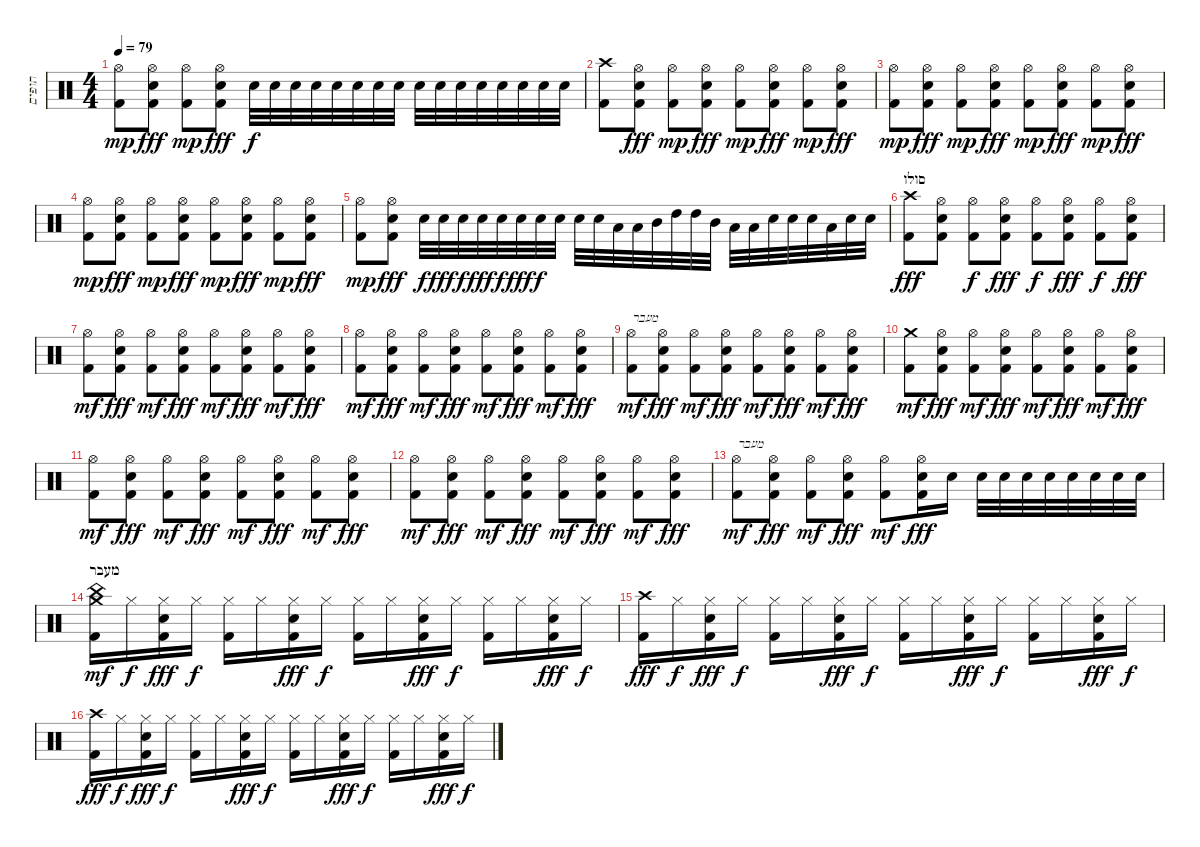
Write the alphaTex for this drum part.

\track ("תופים" "תופים") {instrument percussion}
\staff {score}
\articulation defaults
\ts (4 4)
\tempo 79
\clef neutral
\ks c
("Hi-Hat (open)" "Kick (hit) 2").8{dy mp} ("Hi-Hat (open)" "Snare (hit) 2" "Kick (hit) 2").8{dy fff} ("Hi-Hat (open)" "Kick (hit) 2").8{dy mp} ("Hi-Hat (open)" "Snare (hit) 2" "Kick (hit) 2").8{dy fff} "Snare (hit) 2".32{dy f} "Snare (hit) 2".32 "Snare (hit) 2".32 "Snare (hit) 2".32 "Snare (hit) 2".32 "Snare (hit) 2".32 "Snare (hit) 2".32 "Snare (hit) 2".32 "Snare (hit) 2".32 "Snare (hit) 2".32 "Snare (hit) 2".32 "Snare (hit) 2".32 "Snare (hit) 2".32 "Snare (hit) 2".32 "Snare (hit) 2".32 "Snare (hit) 2".32 |
("Crash high (hit)" "Kick (hit) 2").8 ("Hi-Hat (open)" "Snare (hit) 2" "Kick (hit) 2").8{dy fff} ("Hi-Hat (open)" "Kick (hit) 2").8{dy mp} ("Hi-Hat (open)" "Snare (hit) 2" "Kick (hit) 2").8{dy fff} ("Hi-Hat (open)" "Kick (hit) 2").8{dy mp} ("Hi-Hat (open)" "Snare (hit) 2" "Kick (hit) 2").8{dy fff} ("Hi-Hat (open)" "Kick (hit) 2").8{dy mp} ("Hi-Hat (open)" "Snare (hit) 2" "Kick (hit) 2").8{dy fff} |
("Hi-Hat (open)" "Kick (hit) 2").8{dy mp} ("Hi-Hat (open)" "Snare (hit) 2" "Kick (hit) 2").8{dy fff} ("Hi-Hat (open)" "Kick (hit) 2").8{dy mp} ("Hi-Hat (open)" "Snare (hit) 2" "Kick (hit) 2").8{dy fff} ("Hi-Hat (open)" "Kick (hit) 2").8{dy mp} ("Hi-Hat (open)" "Snare (hit) 2" "Kick (hit) 2").8{dy fff} ("Hi-Hat (open)" "Kick (hit) 2").8{dy mp} ("Hi-Hat (open)" "Snare (hit) 2" "Kick (hit) 2").8{dy fff} |
("Hi-Hat (open)" "Kick (hit) 2").8{dy mp} ("Hi-Hat (open)" "Snare (hit) 2" "Kick (hit) 2").8{dy fff} ("Hi-Hat (open)" "Kick (hit) 2").8{dy mp} ("Hi-Hat (open)" "Snare (hit) 2" "Kick (hit) 2").8{dy fff} ("Hi-Hat (open)" "Kick (hit) 2").8{dy mp} ("Hi-Hat (open)" "Snare (hit) 2" "Kick (hit) 2").8{dy fff} ("Hi-Hat (open)" "Kick (hit) 2").8{dy mp} ("Hi-Hat (open)" "Snare (hit) 2" "Kick (hit) 2").8{dy fff} |
("Hi-Hat (open)" "Kick (hit) 2").8{dy mp} ("Hi-Hat (open)" "Snare (hit) 2" "Kick (hit) 2").8{dy fff} "Snare (hit) 2".32{dy f} "Snare (hit) 2".32{dy fff} "Snare (hit) 2".32{dy f} "Snare (hit) 2".32{dy fff} "Snare (hit) 2".32{dy f} "Snare (hit) 2".32{dy fff} "Snare (hit) 2".32{dy f} "Snare (hit) 2".32 "Snare (hit) 2".32 "Snare (hit) 2".32 "Low Tom (hit)".32 "Low Tom (hit)".32 "Mid Tom (hit)".32 "High Tom (hit)".32 "High Tom (hit)".32 "Mid Tom (hit)".32 "Low Tom (hit)".32 "Low Tom (hit)".32 "Snare (hit) 2".32 "Snare (hit) 2".32 "Snare (hit) 2".32 "Low Tom (hit)".32 "Snare (hit) 2".32 "Snare (hit) 2".32 |
\section ("" "סולו")
("Crash high (hit)" "Kick (hit) 2").8{dy fff} ("Hi-Hat (open)" "Snare (hit) 2" "Kick (hit) 2").8 ("Hi-Hat (open)" "Kick (hit) 2").8{dy f} ("Hi-Hat (open)" "Snare (hit) 2" "Kick (hit) 2").8{dy fff} ("Hi-Hat (open)" "Kick (hit) 2").8{dy f} ("Hi-Hat (open)" "Snare (hit) 2" "Kick (hit) 2").8{dy fff} ("Hi-Hat (open)" "Kick (hit) 2").8{dy f} ("Hi-Hat (open)" "Snare (hit) 2" "Kick (hit) 2").8{dy fff} |
("Hi-Hat (open)" "Kick (hit) 2").8{dy mf} ("Hi-Hat (open)" "Snare (hit) 2" "Kick (hit) 2").8{dy fff} ("Hi-Hat (open)" "Kick (hit) 2").8{dy mf} ("Hi-Hat (open)" "Snare (hit) 2" "Kick (hit) 2").8{dy fff} ("Hi-Hat (open)" "Kick (hit) 2").8{dy mf} ("Hi-Hat (open)" "Snare (hit) 2" "Kick (hit) 2").8{dy fff} ("Hi-Hat (open)" "Kick (hit) 2").8{dy mf} ("Hi-Hat (open)" "Snare (hit) 2" "Kick (hit) 2").8{dy fff} |
("Hi-Hat (open)" "Kick (hit) 2").8{dy mf} ("Hi-Hat (open)" "Snare (hit) 2" "Kick (hit) 2").8{dy fff} ("Hi-Hat (open)" "Kick (hit) 2").8{dy mf} ("Hi-Hat (open)" "Snare (hit) 2" "Kick (hit) 2").8{dy fff} ("Hi-Hat (open)" "Kick (hit) 2").8{dy mf} ("Hi-Hat (open)" "Snare (hit) 2" "Kick (hit) 2").8{dy fff} ("Hi-Hat (open)" "Kick (hit) 2").8{dy mf} ("Hi-Hat (open)" "Snare (hit) 2" "Kick (hit) 2").8{dy fff} |
("Hi-Hat (open)" "Kick (hit) 2").8{txt "מעבר" dy mf} ("Hi-Hat (open)" "Snare (hit) 2" "Kick (hit) 2").8{dy fff} ("Hi-Hat (open)" "Kick (hit) 2").8{dy mf} ("Hi-Hat (open)" "Snare (hit) 2" "Kick (hit) 2").8{dy fff} ("Hi-Hat (open)" "Kick (hit) 2").8{dy mf} ("Hi-Hat (open)" "Snare (hit) 2" "Kick (hit) 2").8{dy fff} ("Hi-Hat (open)" "Kick (hit) 2").8{dy mf} ("Hi-Hat (open)" "Snare (hit) 2" "Kick (hit) 2").8{dy fff} |
("Crash medium (hit)" "Kick (hit) 2").8{dy mf} ("Hi-Hat (open)" "Snare (hit) 2" "Kick (hit) 2").8{dy fff} ("Hi-Hat (open)" "Kick (hit) 2").8{dy mf} ("Hi-Hat (open)" "Snare (hit) 2" "Kick (hit) 2").8{dy fff} ("Hi-Hat (open)" "Kick (hit) 2").8{dy mf} ("Hi-Hat (open)" "Snare (hit) 2" "Kick (hit) 2").8{dy fff} ("Hi-Hat (open)" "Kick (hit) 2").8{dy mf} ("Hi-Hat (open)" "Snare (hit) 2" "Kick (hit) 2").8{dy fff} |
("Hi-Hat (open)" "Kick (hit) 2").8{dy mf} ("Hi-Hat (open)" "Snare (hit) 2" "Kick (hit) 2").8{dy fff} ("Hi-Hat (open)" "Kick (hit) 2").8{dy mf} ("Hi-Hat (open)" "Snare (hit) 2" "Kick (hit) 2").8{dy fff} ("Hi-Hat (open)" "Kick (hit) 2").8{dy mf} ("Hi-Hat (open)" "Snare (hit) 2" "Kick (hit) 2").8{dy fff} ("Hi-Hat (open)" "Kick (hit) 2").8{dy mf} ("Hi-Hat (open)" "Snare (hit) 2" "Kick (hit) 2").8{dy fff} |
("Hi-Hat (open)" "Kick (hit) 2").8{dy mf} ("Hi-Hat (open)" "Snare (hit) 2" "Kick (hit) 2").8{dy fff} ("Hi-Hat (open)" "Kick (hit) 2").8{dy mf} ("Hi-Hat (open)" "Snare (hit) 2" "Kick (hit) 2").8{dy fff} ("Hi-Hat (open)" "Kick (hit) 2").8{dy mf} ("Hi-Hat (open)" "Snare (hit) 2" "Kick (hit) 2").8{dy fff} ("Hi-Hat (open)" "Kick (hit) 2").8{dy mf} ("Hi-Hat (open)" "Snare (hit) 2" "Kick (hit) 2").8{dy fff} |
("Hi-Hat (open)" "Kick (hit) 2").8{txt "מעבר" dy mf} ("Hi-Hat (open)" "Snare (hit) 2" "Kick (hit) 2").8{dy fff} ("Hi-Hat (open)" "Kick (hit) 2").8{dy mf} ("Hi-Hat (open)" "Snare (hit) 2" "Kick (hit) 2").8{dy fff} ("Hi-Hat (open)" "Kick (hit) 2").8{dy mf} ("Hi-Hat (open)" "Snare (hit) 2" "Kick (hit) 2").16{dy fff} "Snare (hit) 2".16 "Snare (hit) 2".32 "Snare (hit) 2".32 "Snare (hit) 2".32 "Snare (hit) 2".32 "Snare (hit) 2".32 "Snare (hit) 2".32 "Snare (hit) 2".32 "Snare (hit) 2".32 |
\section ("" "מעבר")
("Crash medium (hit)" "China (hit)" "Kick (hit) 2").16{dy mf} "Hi-Hat (closed)".16{dy f} ("Hi-Hat (closed)" "Snare (hit) 2" "Kick (hit) 2").16{dy fff} "Hi-Hat (closed)".16{dy f} ("Hi-Hat (closed)" "Kick (hit) 2").16 "Hi-Hat (closed)".16 ("Hi-Hat (closed)" "Snare (hit) 2" "Kick (hit) 2").16{dy fff} "Hi-Hat (closed)".16{dy f} ("Hi-Hat (closed)" "Kick (hit) 2").16 "Hi-Hat (closed)".16 ("Hi-Hat (closed)" "Snare (hit) 2" "Kick (hit) 2").16{dy fff} "Hi-Hat (closed)".16{dy f} ("Hi-Hat (closed)" "Kick (hit) 2").16 "Hi-Hat (closed)".16 ("Hi-Hat (closed)" "Snare (hit) 2" "Kick (hit) 2").16{dy fff} "Hi-Hat (closed)".16{dy f} |
("Crash high (hit)" "Kick (hit) 2").16{dy fff} "Hi-Hat (closed)".16{dy f} ("Hi-Hat (closed)" "Snare (hit) 2" "Kick (hit) 2").16{dy fff} "Hi-Hat (closed)".16{dy f} ("Hi-Hat (closed)" "Kick (hit) 2").16 "Hi-Hat (closed)".16 ("Hi-Hat (closed)" "Snare (hit) 2" "Kick (hit) 2").16{dy fff} "Hi-Hat (closed)".16{dy f} ("Hi-Hat (closed)" "Kick (hit) 2").16 "Hi-Hat (closed)".16 ("Hi-Hat (closed)" "Snare (hit) 2" "Kick (hit) 2").16{dy fff} "Hi-Hat (closed)".16{dy f} ("Hi-Hat (closed)" "Kick (hit) 2").16 "Hi-Hat (closed)".16 ("Hi-Hat (closed)" "Snare (hit) 2" "Kick (hit) 2").16{dy fff} "Hi-Hat (closed)".16{dy f} |
("Crash high (hit)" "Kick (hit) 2").16{dy fff} "Hi-Hat (closed)".16{dy f} ("Hi-Hat (closed)" "Snare (hit) 2" "Kick (hit) 2").16{dy fff} "Hi-Hat (closed)".16{dy f} ("Hi-Hat (closed)" "Kick (hit) 2").16 "Hi-Hat (closed)".16 ("Hi-Hat (closed)" "Snare (hit) 2" "Kick (hit) 2").16{dy fff} "Hi-Hat (closed)".16{dy f} ("Hi-Hat (closed)" "Kick (hit) 2").16 "Hi-Hat (closed)".16 ("Hi-Hat (closed)" "Snare (hit) 2" "Kick (hit) 2").16{dy fff} "Hi-Hat (closed)".16{dy f} ("Hi-Hat (closed)" "Kick (hit) 2").16 "Hi-Hat (closed)".16 ("Hi-Hat (closed)" "Snare (hit) 2" "Kick (hit) 2").16{dy fff} "Hi-Hat (closed)".16{dy f}
